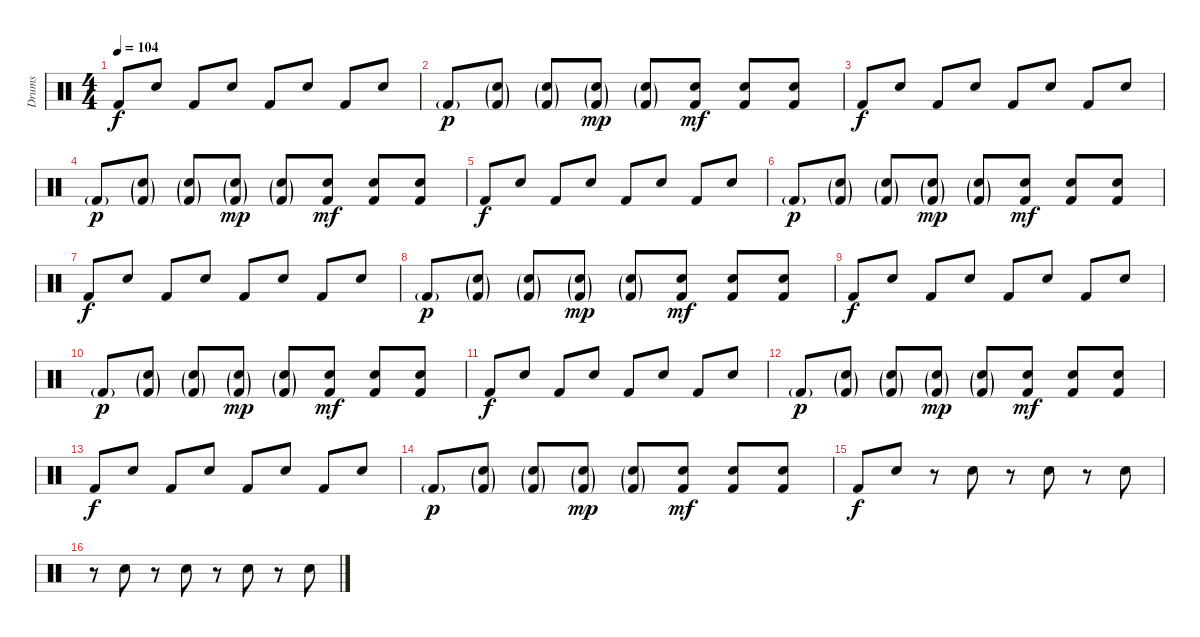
\track ("Drums" "Drums") {instrument percussion}
\staff {score}
\articulation defaults
\ts (4 4)
\tempo 104
\clef neutral
\ks c "Kick (hit) 2".8{dy f} "Snare (hit) 2".8 "Kick (hit) 2".8 "Snare (hit) 2".8 "Kick (hit) 2".8 "Snare (hit) 2".8 "Kick (hit) 2".8 "Snare (hit) 2".8
|
"Kick (hit) 2"{g}.8{dy p} ("Snare (hit) 2"{g} "Kick (hit) 2"{g}).8 ("Snare (hit) 2"{g} "Kick (hit) 2"{g}).8 ("Snare (hit) 2"{g} "Kick (hit) 2"{g}).8{dy mp} ("Snare (hit) 2"{g} "Kick (hit) 2"{g}).8 ("Snare (hit) 2" "Kick (hit) 2").8{dy mf} ("Snare (hit) 2" "Kick (hit) 2").8 ("Snare (hit) 2" "Kick (hit) 2").8 |
"Kick (hit) 2".8{dy f} "Snare (hit) 2".8 "Kick (hit) 2".8 "Snare (hit) 2".8 "Kick (hit) 2".8 "Snare (hit) 2".8 "Kick (hit) 2".8 "Snare (hit) 2".8 |
"Kick (hit) 2"{g}.8{dy p} ("Snare (hit) 2"{g} "Kick (hit) 2"{g}).8 ("Snare (hit) 2"{g} "Kick (hit) 2"{g}).8 ("Snare (hit) 2"{g} "Kick (hit) 2"{g}).8{dy mp} ("Snare (hit) 2"{g} "Kick (hit) 2"{g}).8 ("Snare (hit) 2" "Kick (hit) 2").8{dy mf} ("Snare (hit) 2" "Kick (hit) 2").8 ("Snare (hit) 2" "Kick (hit) 2").8 |
"Kick (hit) 2".8{dy f} "Snare (hit) 2".8 "Kick (hit) 2".8 "Snare (hit) 2".8 "Kick (hit) 2".8 "Snare (hit) 2".8 "Kick (hit) 2".8 "Snare (hit) 2".8 |
"Kick (hit) 2"{g}.8{dy p} ("Snare (hit) 2"{g} "Kick (hit) 2"{g}).8 ("Snare (hit) 2"{g} "Kick (hit) 2"{g}).8 ("Snare (hit) 2"{g} "Kick (hit) 2"{g}).8{dy mp} ("Snare (hit) 2"{g} "Kick (hit) 2"{g}).8 ("Snare (hit) 2" "Kick (hit) 2").8{dy mf} ("Snare (hit) 2" "Kick (hit) 2").8 ("Snare (hit) 2" "Kick (hit) 2").8 |
"Kick (hit) 2".8{dy f} "Snare (hit) 2".8 "Kick (hit) 2".8 "Snare (hit) 2".8 "Kick (hit) 2".8 "Snare (hit) 2".8 "Kick (hit) 2".8 "Snare (hit) 2".8 |
"Kick (hit) 2"{g}.8{dy p} ("Snare (hit) 2"{g} "Kick (hit) 2"{g}).8 ("Snare (hit) 2"{g} "Kick (hit) 2"{g}).8 ("Snare (hit) 2"{g} "Kick (hit) 2"{g}).8{dy mp} ("Snare (hit) 2"{g} "Kick (hit) 2"{g}).8 ("Snare (hit) 2" "Kick (hit) 2").8{dy mf} ("Snare (hit) 2" "Kick (hit) 2").8 ("Snare (hit) 2" "Kick (hit) 2").8 |
"Kick (hit) 2".8{dy f} "Snare (hit) 2".8 "Kick (hit) 2".8 "Snare (hit) 2".8 "Kick (hit) 2".8 "Snare (hit) 2".8 "Kick (hit) 2".8 "Snare (hit) 2".8 |
"Kick (hit) 2"{g}.8{dy p} ("Snare (hit) 2"{g} "Kick (hit) 2"{g}).8 ("Snare (hit) 2"{g} "Kick (hit) 2"{g}).8 ("Snare (hit) 2"{g} "Kick (hit) 2"{g}).8{dy mp} ("Snare (hit) 2"{g} "Kick (hit) 2"{g}).8 ("Snare (hit) 2" "Kick (hit) 2").8{dy mf} ("Snare (hit) 2" "Kick (hit) 2").8 ("Snare (hit) 2" "Kick (hit) 2").8 |
"Kick (hit) 2".8{dy f} "Snare (hit) 2".8 "Kick (hit) 2".8 "Snare (hit) 2".8 "Kick (hit) 2".8 "Snare (hit) 2".8 "Kick (hit) 2".8 "Snare (hit) 2".8 |
"Kick (hit) 2"{g}.8{dy p} ("Snare (hit) 2"{g} "Kick (hit) 2"{g}).8 ("Snare (hit) 2"{g} "Kick (hit) 2"{g}).8 ("Snare (hit) 2"{g} "Kick (hit) 2"{g}).8{dy mp} ("Snare (hit) 2"{g} "Kick (hit) 2"{g}).8 ("Snare (hit) 2" "Kick (hit) 2").8{dy mf} ("Snare (hit) 2" "Kick (hit) 2").8 ("Snare (hit) 2" "Kick (hit) 2").8 |
"Kick (hit) 2".8{dy f} "Snare (hit) 2".8 "Kick (hit) 2".8 "Snare (hit) 2".8 "Kick (hit) 2".8 "Snare (hit) 2".8 "Kick (hit) 2".8 "Snare (hit) 2".8 |
"Kick (hit) 2"{g}.8{dy p} ("Snare (hit) 2"{g} "Kick (hit) 2"{g}).8 ("Snare (hit) 2"{g} "Kick (hit) 2"{g}).8 ("Snare (hit) 2"{g} "Kick (hit) 2"{g}).8{dy mp} ("Snare (hit) 2"{g} "Kick (hit) 2"{g}).8 ("Snare (hit) 2" "Kick (hit) 2").8{dy mf} ("Snare (hit) 2" "Kick (hit) 2").8 ("Snare (hit) 2" "Kick (hit) 2").8 |
"Kick (hit) 2".8{dy f} "Snare (hit) 2".8 r.8 "Snare (hit) 2".8 r.8 "Snare (hit) 2".8 r.8 "Snare (hit) 2".8 |
r.8 "Snare (hit) 2".8 r.8 "Snare (hit) 2".8 r.8 "Snare (hit) 2".8 r.8 "Snare (hit) 2".8
